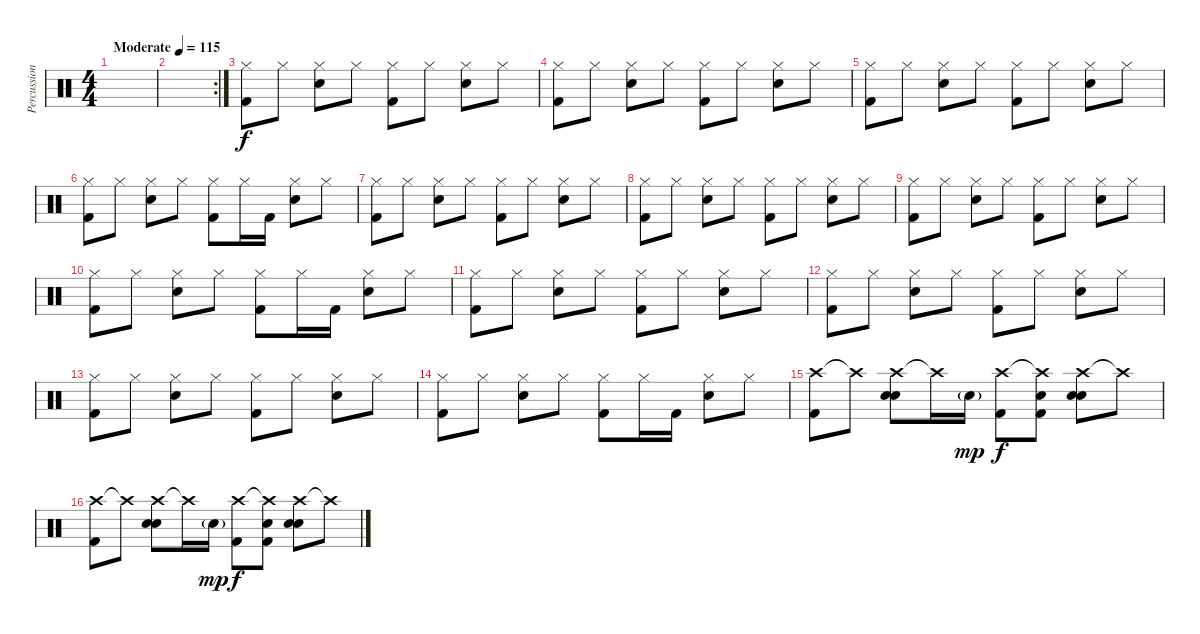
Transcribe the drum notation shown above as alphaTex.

\track ("Percussion" "Percussion") {instrument percussion}
\staff {score}
\articulation defaults
\ts (4 4)
\tempo (115 "Moderate")
\clef neutral
\ks c
|
\rc 2
|
("Hi-Hat (closed)" "Kick (hit) 2").8 "Hi-Hat (closed)".8 ("Hi-Hat (closed)" "Snare (hit) 2").8 "Hi-Hat (closed)".8 ("Hi-Hat (closed)" "Kick (hit) 2").8 "Hi-Hat (closed)".8 ("Hi-Hat (closed)" "Snare (hit) 2").8 "Hi-Hat (closed)".8 |
("Hi-Hat (closed)" "Kick (hit) 2").8 "Hi-Hat (closed)".8 ("Hi-Hat (closed)" "Snare (hit) 2").8 "Hi-Hat (closed)".8 ("Hi-Hat (closed)" "Kick (hit) 2").8 "Hi-Hat (closed)".8 ("Hi-Hat (closed)" "Snare (hit) 2").8 "Hi-Hat (closed)".8 |
("Hi-Hat (closed)" "Kick (hit) 2").8 "Hi-Hat (closed)".8 ("Hi-Hat (closed)" "Snare (hit) 2").8 "Hi-Hat (closed)".8 ("Hi-Hat (closed)" "Kick (hit) 2").8 "Hi-Hat (closed)".8 ("Hi-Hat (closed)" "Snare (hit) 2").8 "Hi-Hat (closed)".8 |
("Hi-Hat (closed)" "Kick (hit) 2").8 "Hi-Hat (closed)".8 ("Hi-Hat (closed)" "Snare (hit) 2").8 "Hi-Hat (closed)".8 ("Hi-Hat (closed)" "Kick (hit) 2").8 "Hi-Hat (closed)".16 "Kick (hit) 2".16 ("Hi-Hat (closed)" "Snare (hit) 2").8 "Hi-Hat (closed)".8 |
("Hi-Hat (closed)" "Kick (hit) 2").8 "Hi-Hat (closed)".8 ("Hi-Hat (closed)" "Snare (hit) 2").8 "Hi-Hat (closed)".8 ("Hi-Hat (closed)" "Kick (hit) 2").8 "Hi-Hat (closed)".8 ("Hi-Hat (closed)" "Snare (hit) 2").8 "Hi-Hat (closed)".8 |
("Hi-Hat (closed)" "Kick (hit) 2").8 "Hi-Hat (closed)".8 ("Hi-Hat (closed)" "Snare (hit) 2").8 "Hi-Hat (closed)".8 ("Hi-Hat (closed)" "Kick (hit) 2").8 "Hi-Hat (closed)".8 ("Hi-Hat (closed)" "Snare (hit) 2").8 "Hi-Hat (closed)".8 |
("Hi-Hat (closed)" "Kick (hit) 2").8 "Hi-Hat (closed)".8 ("Hi-Hat (closed)" "Snare (hit) 2").8 "Hi-Hat (closed)".8 ("Hi-Hat (closed)" "Kick (hit) 2").8 "Hi-Hat (closed)".8 ("Hi-Hat (closed)" "Snare (hit) 2").8 "Hi-Hat (closed)".8 |
("Hi-Hat (closed)" "Kick (hit) 2").8 "Hi-Hat (closed)".8 ("Hi-Hat (closed)" "Snare (hit) 2").8 "Hi-Hat (closed)".8 ("Hi-Hat (closed)" "Kick (hit) 2").8 "Hi-Hat (closed)".16 "Kick (hit) 2".16 ("Hi-Hat (closed)" "Snare (hit) 2").8 "Hi-Hat (closed)".8 |
("Hi-Hat (closed)" "Kick (hit) 2").8 "Hi-Hat (closed)".8 ("Hi-Hat (closed)" "Snare (hit) 2").8 "Hi-Hat (closed)".8 ("Hi-Hat (closed)" "Kick (hit) 2").8 "Hi-Hat (closed)".8 ("Hi-Hat (closed)" "Snare (hit) 2").8 "Hi-Hat (closed)".8 |
("Hi-Hat (closed)" "Kick (hit) 2").8 "Hi-Hat (closed)".8 ("Hi-Hat (closed)" "Snare (hit) 2").8 "Hi-Hat (closed)".8 ("Hi-Hat (closed)" "Kick (hit) 2").8 "Hi-Hat (closed)".8 ("Hi-Hat (closed)" "Snare (hit) 2").8 "Hi-Hat (closed)".8 |
("Hi-Hat (closed)" "Kick (hit) 2").8 "Hi-Hat (closed)".8 ("Hi-Hat (closed)" "Snare (hit) 2").8 "Hi-Hat (closed)".8 ("Hi-Hat (closed)" "Kick (hit) 2").8 "Hi-Hat (closed)".8 ("Hi-Hat (closed)" "Snare (hit) 2").8 "Hi-Hat (closed)".8 |
("Hi-Hat (closed)" "Kick (hit) 2").8 "Hi-Hat (closed)".8 ("Hi-Hat (closed)" "Snare (hit) 2").8 "Hi-Hat (closed)".8 ("Hi-Hat (closed)" "Kick (hit) 2").8 "Hi-Hat (closed)".16 "Kick (hit) 2".16 ("Hi-Hat (closed)" "Snare (hit) 2").8 "Hi-Hat (closed)".8 |
("Crash high (hit)" "Kick (hit) 2").8 "Crash high (hit)"{t}.8 ("Crash high (hit)" "Hand Clap (hit)" "Snare (hit) 2").8 "Crash high (hit)"{t}.16 "Snare (hit) 2"{g}.16{dy mp} ("Crash high (hit)" "Kick (hit) 2").8{dy f} ("Crash high (hit)"{t} "Hand Clap (hit)" "Kick (hit) 2").8 ("Crash high (hit)" "Hand Clap (hit)" "Snare (hit) 2").8 "Crash high (hit)"{t}.8 |
("Crash high (hit)" "Kick (hit) 2").8 "Crash high (hit)"{t}.8 ("Crash high (hit)" "Hand Clap (hit)" "Snare (hit) 2").8 "Crash high (hit)"{t}.16 "Snare (hit) 2"{g}.16{dy mp} ("Crash high (hit)" "Kick (hit) 2").8{dy f} ("Crash high (hit)"{t} "Hand Clap (hit)" "Kick (hit) 2").8 ("Crash high (hit)" "Hand Clap (hit)" "Snare (hit) 2").8 "Crash high (hit)"{t}.8
